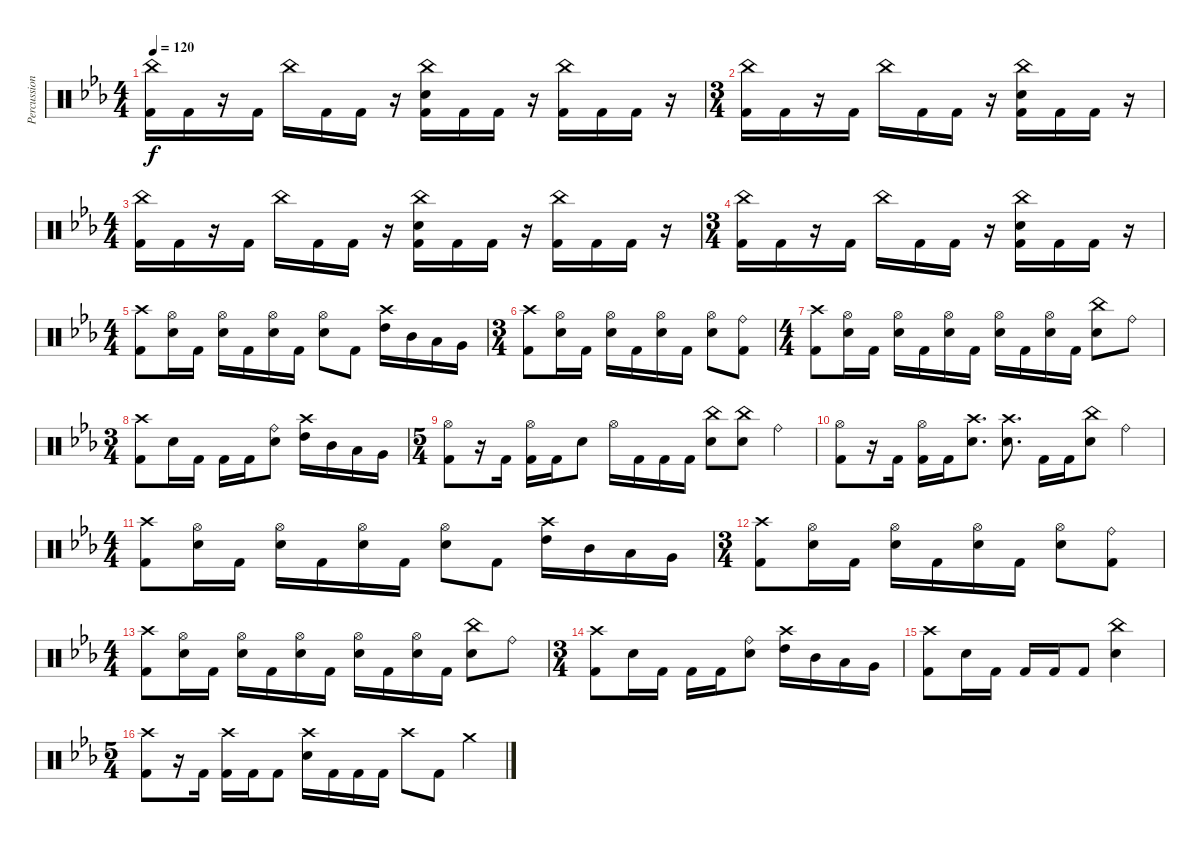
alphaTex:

\track ("Percussion" "Percussion") {instrument percussion}
\staff {score}
\articulation defaults
\ts (4 4)
\tempo 120
\clef neutral
\ks eb
("China (hit)" "Kick (hit) 2").16{dy f} "Kick (hit) 2".16 r.16 "Kick (hit) 2".16 "China (hit)".16 "Kick (hit) 2".16 "Kick (hit) 2".16 r.16 ("China (hit)" "Electric Snare (hit)" "Kick (hit) 2").16 "Kick (hit) 2".16 "Kick (hit) 2".16 r.16 ("China (hit)" "Kick (hit) 2").16 "Kick (hit) 2".16 "Kick (hit) 2".16 r.16 |
\ts (3 4)
("China (hit)" "Kick (hit) 2").16 "Kick (hit) 2".16 r.16 "Kick (hit) 2".16 "China (hit)".16 "Kick (hit) 2".16 "Kick (hit) 2".16 r.16 ("China (hit)" "Electric Snare (hit)" "Kick (hit) 2").16 "Kick (hit) 2".16 "Kick (hit) 2".16 r.16 |
\ts (4 4)
("China (hit)" "Kick (hit) 2").16 "Kick (hit) 2".16 r.16 "Kick (hit) 2".16 "China (hit)".16 "Kick (hit) 2".16 "Kick (hit) 2".16 r.16 ("China (hit)" "Electric Snare (hit)" "Kick (hit) 2").16 "Kick (hit) 2".16 "Kick (hit) 2".16 r.16 ("China (hit)" "Kick (hit) 2").16 "Kick (hit) 2".16 "Kick (hit) 2".16 r.16 |
\ts (3 4)
("China (hit)" "Kick (hit) 2").16 "Kick (hit) 2".16 r.16 "Kick (hit) 2".16 "China (hit)".16 "Kick (hit) 2".16 "Kick (hit) 2".16 r.16 ("China (hit)" "Electric Snare (hit)" "Kick (hit) 2").16 "Kick (hit) 2".16 "Kick (hit) 2".16 r.16 |
\ts (4 4)
("Crash high (hit)" "Kick (hit) 2").8 ("Hi-Hat (open)" "Electric Snare (hit)").16 "Kick (hit) 2".16 ("Hi-Hat (open)" "Electric Snare (hit)").16 "Kick (hit) 2".16 ("Hi-Hat (open)" "Electric Snare (hit)").16 "Kick (hit) 2".16 ("Hi-Hat (open)" "Electric Snare (hit)").8 "Kick (hit) 2".8 ("Crash high (hit)" "High Tom (hit)").16 "Mid Tom (hit)".16 "Low Tom (hit)".16 "Very Low Tom (hit)".16 |
\ts (3 4)
("Crash high (hit)" "Kick (hit) 2").8 ("Hi-Hat (open)" "Electric Snare (hit)").16 "Kick (hit) 2".16 ("Hi-Hat (open)" "Electric Snare (hit)").16 "Kick (hit) 2".16 ("Hi-Hat (open)" "Electric Snare (hit)").16 "Kick (hit) 2".16 ("Hi-Hat (open)" "Electric Snare (hit)").8 ("Ride (bell)" "Kick (hit) 2").8 |
\ts (4 4)
("Crash high (hit)" "Kick (hit) 2").8 ("Hi-Hat (open)" "Electric Snare (hit)").16 "Kick (hit) 2".16 ("Hi-Hat (open)" "Electric Snare (hit)").16 "Kick (hit) 2".16 ("Hi-Hat (open)" "Electric Snare (hit)").16 "Kick (hit) 2".16 ("Hi-Hat (open)" "Electric Snare (hit)").16 "Kick (hit) 2".16 ("Hi-Hat (open)" "Electric Snare (hit)").16 "Kick (hit) 2".16 ("China (hit)" "Electric Snare (hit)").8 "Ride (bell)".8 |
\ts (3 4)
("Crash high (hit)" "Kick (hit) 2").8 "Electric Snare (hit)".16 "Kick (hit) 2".16 "Kick (hit) 2".16 "Kick (hit) 2".16 ("Ride (bell)" "Electric Snare (hit)").8 ("Crash high (hit)" "High Tom (hit)").16 "Mid Tom (hit)".16 "Low Tom (hit)".16 "Very Low Tom (hit)".16 |
\ts (5 4)
("Hi-Hat (open)" "Kick (hit) 2").8 r.16 "Kick (hit) 2".16 ("Hi-Hat (open)" "Kick (hit) 2").16 "Kick (hit) 2".16 "Electric Snare (hit)".8 "Hi-Hat (open)".16 "Kick (hit) 2".16 "Kick (hit) 2".16 "Kick (hit) 2".16 ("China (hit)" "Electric Snare (hit)").8 ("China (hit)" "Electric Snare (hit)").8 "Ride (bell)".4 |
("Hi-Hat (open)" "Kick (hit) 2").8 r.16 "Kick (hit) 2".16 ("Hi-Hat (open)" "Kick (hit) 2").16 "Kick (hit) 2".16 ("Crash high (hit)" "Electric Snare (hit)").8{d} ("Crash high (hit)" "Electric Snare (hit)").8{d} "Kick (hit) 2".16 "Kick (hit) 2".16 ("China (hit)" "Electric Snare (hit)").8 "Ride (bell)".4 |
\ts (4 4)
("Crash high (hit)" "Kick (hit) 2").8 ("Hi-Hat (open)" "Electric Snare (hit)").16 "Kick (hit) 2".16 ("Hi-Hat (open)" "Electric Snare (hit)").16 "Kick (hit) 2".16 ("Hi-Hat (open)" "Electric Snare (hit)").16 "Kick (hit) 2".16 ("Hi-Hat (open)" "Electric Snare (hit)").8 "Kick (hit) 2".8 ("Crash high (hit)" "High Tom (hit)").16 "Mid Tom (hit)".16 "Low Tom (hit)".16 "Very Low Tom (hit)".16 |
\ts (3 4)
("Crash high (hit)" "Kick (hit) 2").8 ("Hi-Hat (open)" "Electric Snare (hit)").16 "Kick (hit) 2".16 ("Hi-Hat (open)" "Electric Snare (hit)").16 "Kick (hit) 2".16 ("Hi-Hat (open)" "Electric Snare (hit)").16 "Kick (hit) 2".16 ("Hi-Hat (open)" "Electric Snare (hit)").8 ("Ride (bell)" "Kick (hit) 2").8 |
\ts (4 4)
("Crash high (hit)" "Kick (hit) 2").8 ("Hi-Hat (open)" "Electric Snare (hit)").16 "Kick (hit) 2".16 ("Hi-Hat (open)" "Electric Snare (hit)").16 "Kick (hit) 2".16 ("Hi-Hat (open)" "Electric Snare (hit)").16 "Kick (hit) 2".16 ("Hi-Hat (open)" "Electric Snare (hit)").16 "Kick (hit) 2".16 ("Hi-Hat (open)" "Electric Snare (hit)").16 "Kick (hit) 2".16 ("China (hit)" "Electric Snare (hit)").8 "Ride (bell)".8 |
\ts (3 4)
("Crash high (hit)" "Kick (hit) 2").8 "Electric Snare (hit)".16 "Kick (hit) 2".16 "Kick (hit) 2".16 "Kick (hit) 2".16 ("Ride (bell)" "Electric Snare (hit)").8 ("Crash high (hit)" "High Tom (hit)").16 "Mid Tom (hit)".16 "Low Tom (hit)".16 "Very Low Tom (hit)".16 |
("Crash high (hit)" "Kick (hit) 2").8 "Electric Snare (hit)".16 "Kick (hit) 2".16 "Kick (hit) 2".16 "Kick (hit) 2".16 "Kick (hit) 2".8 ("China (hit)" "Electric Snare (hit)").4 |
\ts (5 4)
("Crash high (hit)" "Kick (hit) 2").8 r.16 "Kick (hit) 2".16 ("Crash high (hit)" "Kick (hit) 2").16 "Kick (hit) 2".16 "Kick (hit) 2".8 ("Crash high (hit)" "Electric Snare (hit)").16 "Kick (hit) 2".16 "Kick (hit) 2".16 "Kick (hit) 2".16 "Crash high (hit)".8 "Kick (hit) 2".8 "Crash medium (hit)".4
